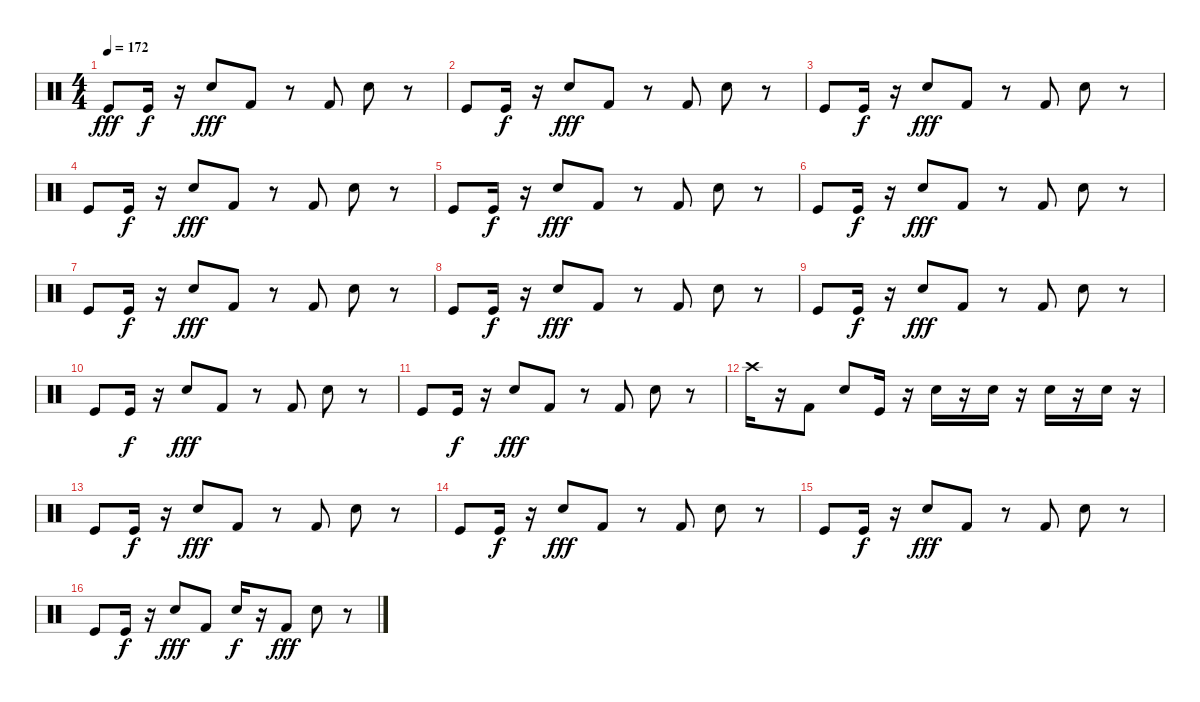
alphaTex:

\track "" {instrument percussion}
\staff {score}
\articulation defaults
\ts (4 4)
\tempo 172
\clef neutral
\ks c "Kick (hit)".8{dy fff} "Kick (hit)".16{dy f}
r.16 "Snare (hit) 2".8{dy fff} "Kick (hit) 2".8 r.8 "Kick (hit) 2".8 "Snare (hit) 2".8 r.8 |
"Kick (hit)".8 "Kick (hit)".16{dy f} r.16 "Snare (hit) 2".8{dy fff} "Kick (hit) 2".8 r.8 "Kick (hit) 2".8 "Snare (hit) 2".8 r.8 |
"Kick (hit)".8 "Kick (hit)".16{dy f} r.16 "Snare (hit) 2".8{dy fff} "Kick (hit) 2".8 r.8 "Kick (hit) 2".8 "Snare (hit) 2".8 r.8 |
"Kick (hit)".8 "Kick (hit)".16{dy f} r.16 "Snare (hit) 2".8{dy fff} "Kick (hit) 2".8 r.8 "Kick (hit) 2".8 "Snare (hit) 2".8 r.8 |
"Kick (hit)".8 "Kick (hit)".16{dy f} r.16 "Snare (hit) 2".8{dy fff} "Kick (hit) 2".8 r.8 "Kick (hit) 2".8 "Snare (hit) 2".8 r.8 |
"Kick (hit)".8 "Kick (hit)".16{dy f} r.16 "Snare (hit) 2".8{dy fff} "Kick (hit) 2".8 r.8 "Kick (hit) 2".8 "Snare (hit) 2".8 r.8 |
"Kick (hit)".8 "Kick (hit)".16{dy f} r.16 "Snare (hit) 2".8{dy fff} "Kick (hit) 2".8 r.8 "Kick (hit) 2".8 "Snare (hit) 2".8 r.8 |
"Kick (hit)".8 "Kick (hit)".16{dy f} r.16 "Snare (hit) 2".8{dy fff} "Kick (hit) 2".8 r.8 "Kick (hit) 2".8 "Snare (hit) 2".8 r.8 |
"Kick (hit)".8 "Kick (hit)".16{dy f} r.16 "Snare (hit) 2".8{dy fff} "Kick (hit) 2".8 r.8 "Kick (hit) 2".8 "Snare (hit) 2".8 r.8 |
"Kick (hit)".8 "Kick (hit)".16{dy f} r.16 "Snare (hit) 2".8{dy fff} "Kick (hit) 2".8 r.8 "Kick (hit) 2".8 "Snare (hit) 2".8 r.8 |
"Kick (hit)".8 "Kick (hit)".16{dy f} r.16 "Snare (hit) 2".8{dy fff} "Kick (hit) 2".8 r.8 "Kick (hit) 2".8 "Snare (hit) 2".8 r.8 |
"Crash high (hit)".16 r.16 "Kick (hit) 2".8 "Snare (hit) 2".8 "Kick (hit)".16 r.16 "Snare (hit) 2".16 r.16 "Snare (hit) 2".16 r.16 "Snare (hit) 2".16 r.16 "Snare (hit) 2".16 r.16 |
"Kick (hit)".8 "Kick (hit)".16{dy f} r.16 "Snare (hit) 2".8{dy fff} "Kick (hit) 2".8 r.8 "Kick (hit) 2".8 "Snare (hit) 2".8 r.8 |
"Kick (hit)".8 "Kick (hit)".16{dy f} r.16 "Snare (hit) 2".8{dy fff} "Kick (hit) 2".8 r.8 "Kick (hit) 2".8 "Snare (hit) 2".8 r.8 |
"Kick (hit)".8 "Kick (hit)".16{dy f} r.16 "Snare (hit) 2".8{dy fff} "Kick (hit) 2".8 r.8 "Kick (hit) 2".8 "Snare (hit) 2".8 r.8 |
"Kick (hit)".8 "Kick (hit)".16{dy f} r.16 "Snare (hit) 2".8{dy fff} "Kick (hit) 2".8 "Snare (hit) 2".16{dy f} r.16 "Kick (hit) 2".8{dy fff} "Snare (hit) 2".8 r.8
